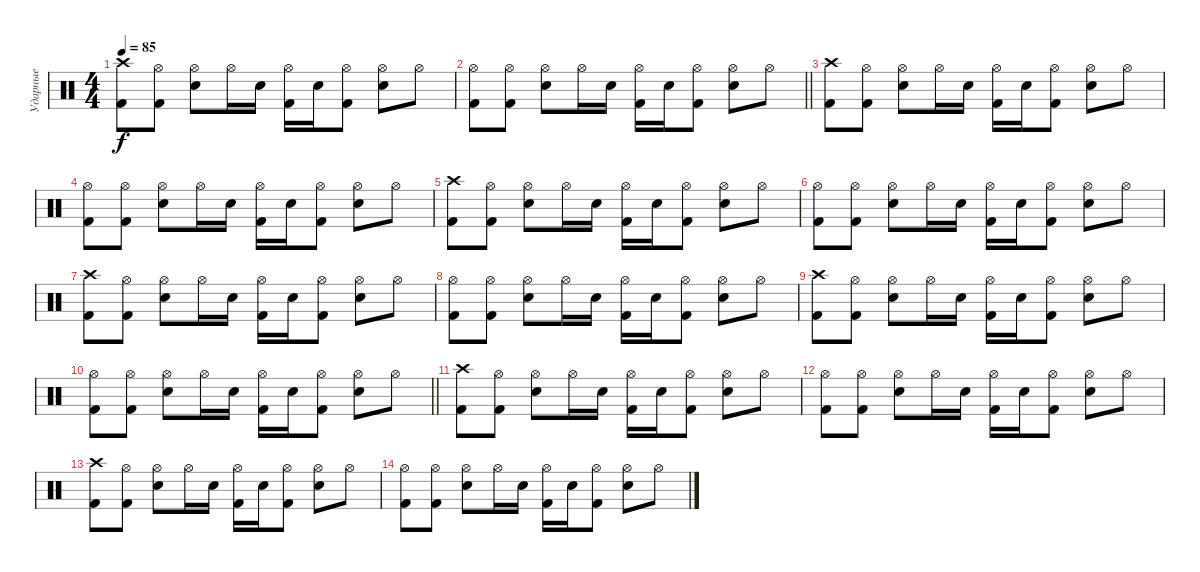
\track ("Ударные" "Ударные") {instrument percussion}
\staff {score}
\articulation defaults
\ts (4 4)
\tempo 85
\clef neutral
\ks c
("Crash high (hit)" "Kick (hit) 2").8{dy f} ("Hi-Hat (open)" "Kick (hit) 2").8 ("Hi-Hat (open)" "Electric Snare (hit)").8 "Hi-Hat (open)".16 "Electric Snare (hit)".16 ("Hi-Hat (open)" "Kick (hit) 2").16 "Electric Snare (hit)".16 ("Hi-Hat (open)" "Kick (hit) 2").8 ("Hi-Hat (open)" "Electric Snare (hit)").8 "Hi-Hat (open)".8 |
\barLineRight lightlight
("Hi-Hat (open)" "Kick (hit) 2").8 ("Hi-Hat (open)" "Kick (hit) 2").8 ("Hi-Hat (open)" "Electric Snare (hit)").8 "Hi-Hat (open)".16 "Electric Snare (hit)".16 ("Hi-Hat (open)" "Kick (hit) 2").16 "Electric Snare (hit)".16 ("Hi-Hat (open)" "Kick (hit) 2").8 ("Hi-Hat (open)" "Electric Snare (hit)").8 "Hi-Hat (open)".8 |
("Crash high (hit)" "Kick (hit) 2").8 ("Hi-Hat (open)" "Kick (hit) 2").8 ("Hi-Hat (open)" "Electric Snare (hit)").8 "Hi-Hat (open)".16 "Electric Snare (hit)".16 ("Hi-Hat (open)" "Kick (hit) 2").16 "Electric Snare (hit)".16 ("Hi-Hat (open)" "Kick (hit) 2").8 ("Hi-Hat (open)" "Electric Snare (hit)").8 "Hi-Hat (open)".8 |
("Hi-Hat (open)" "Kick (hit) 2").8 ("Hi-Hat (open)" "Kick (hit) 2").8 ("Hi-Hat (open)" "Electric Snare (hit)").8 "Hi-Hat (open)".16 "Electric Snare (hit)".16 ("Hi-Hat (open)" "Kick (hit) 2").16 "Electric Snare (hit)".16 ("Hi-Hat (open)" "Kick (hit) 2").8 ("Hi-Hat (open)" "Electric Snare (hit)").8 "Hi-Hat (open)".8 |
("Crash high (hit)" "Kick (hit) 2").8 ("Hi-Hat (open)" "Kick (hit) 2").8 ("Hi-Hat (open)" "Electric Snare (hit)").8 "Hi-Hat (open)".16 "Electric Snare (hit)".16 ("Hi-Hat (open)" "Kick (hit) 2").16 "Electric Snare (hit)".16 ("Hi-Hat (open)" "Kick (hit) 2").8 ("Hi-Hat (open)" "Electric Snare (hit)").8 "Hi-Hat (open)".8 |
("Hi-Hat (open)" "Kick (hit) 2").8 ("Hi-Hat (open)" "Kick (hit) 2").8 ("Hi-Hat (open)" "Electric Snare (hit)").8 "Hi-Hat (open)".16 "Electric Snare (hit)".16 ("Hi-Hat (open)" "Kick (hit) 2").16 "Electric Snare (hit)".16 ("Hi-Hat (open)" "Kick (hit) 2").8 ("Hi-Hat (open)" "Electric Snare (hit)").8 "Hi-Hat (open)".8 |
("Crash high (hit)" "Kick (hit) 2").8 ("Hi-Hat (open)" "Kick (hit) 2").8 ("Hi-Hat (open)" "Electric Snare (hit)").8 "Hi-Hat (open)".16 "Electric Snare (hit)".16 ("Hi-Hat (open)" "Kick (hit) 2").16 "Electric Snare (hit)".16 ("Hi-Hat (open)" "Kick (hit) 2").8 ("Hi-Hat (open)" "Electric Snare (hit)").8 "Hi-Hat (open)".8 |
("Hi-Hat (open)" "Kick (hit) 2").8 ("Hi-Hat (open)" "Kick (hit) 2").8 ("Hi-Hat (open)" "Electric Snare (hit)").8 "Hi-Hat (open)".16 "Electric Snare (hit)".16 ("Hi-Hat (open)" "Kick (hit) 2").16 "Electric Snare (hit)".16 ("Hi-Hat (open)" "Kick (hit) 2").8 ("Hi-Hat (open)" "Electric Snare (hit)").8 "Hi-Hat (open)".8 |
("Crash high (hit)" "Kick (hit) 2").8 ("Hi-Hat (open)" "Kick (hit) 2").8 ("Hi-Hat (open)" "Electric Snare (hit)").8 "Hi-Hat (open)".16 "Electric Snare (hit)".16 ("Hi-Hat (open)" "Kick (hit) 2").16 "Electric Snare (hit)".16 ("Hi-Hat (open)" "Kick (hit) 2").8 ("Hi-Hat (open)" "Electric Snare (hit)").8 "Hi-Hat (open)".8 |
\barLineRight lightlight
("Hi-Hat (open)" "Kick (hit) 2").8 ("Hi-Hat (open)" "Kick (hit) 2").8 ("Hi-Hat (open)" "Electric Snare (hit)").8 "Hi-Hat (open)".16 "Electric Snare (hit)".16 ("Hi-Hat (open)" "Kick (hit) 2").16 "Electric Snare (hit)".16 ("Hi-Hat (open)" "Kick (hit) 2").8 ("Hi-Hat (open)" "Electric Snare (hit)").8 "Hi-Hat (open)".8 |
("Crash high (hit)" "Kick (hit) 2").8 ("Hi-Hat (open)" "Kick (hit) 2").8 ("Hi-Hat (open)" "Electric Snare (hit)").8 "Hi-Hat (open)".16 "Electric Snare (hit)".16 ("Hi-Hat (open)" "Kick (hit) 2").16 "Electric Snare (hit)".16 ("Hi-Hat (open)" "Kick (hit) 2").8 ("Hi-Hat (open)" "Electric Snare (hit)").8 "Hi-Hat (open)".8 |
("Hi-Hat (open)" "Kick (hit) 2").8 ("Hi-Hat (open)" "Kick (hit) 2").8 ("Hi-Hat (open)" "Electric Snare (hit)").8 "Hi-Hat (open)".16 "Electric Snare (hit)".16 ("Hi-Hat (open)" "Kick (hit) 2").16 "Electric Snare (hit)".16 ("Hi-Hat (open)" "Kick (hit) 2").8 ("Hi-Hat (open)" "Electric Snare (hit)").8 "Hi-Hat (open)".8 |
("Crash high (hit)" "Kick (hit) 2").8 ("Hi-Hat (open)" "Kick (hit) 2").8 ("Hi-Hat (open)" "Electric Snare (hit)").8 "Hi-Hat (open)".16 "Electric Snare (hit)".16 ("Hi-Hat (open)" "Kick (hit) 2").16 "Electric Snare (hit)".16 ("Hi-Hat (open)" "Kick (hit) 2").8 ("Hi-Hat (open)" "Electric Snare (hit)").8 "Hi-Hat (open)".8 |
("Hi-Hat (open)" "Kick (hit) 2").8 ("Hi-Hat (open)" "Kick (hit) 2").8 ("Hi-Hat (open)" "Electric Snare (hit)").8 "Hi-Hat (open)".16 "Electric Snare (hit)".16 ("Hi-Hat (open)" "Kick (hit) 2").16 "Electric Snare (hit)".16 ("Hi-Hat (open)" "Kick (hit) 2").8 ("Hi-Hat (open)" "Electric Snare (hit)").8 "Hi-Hat (open)".8
